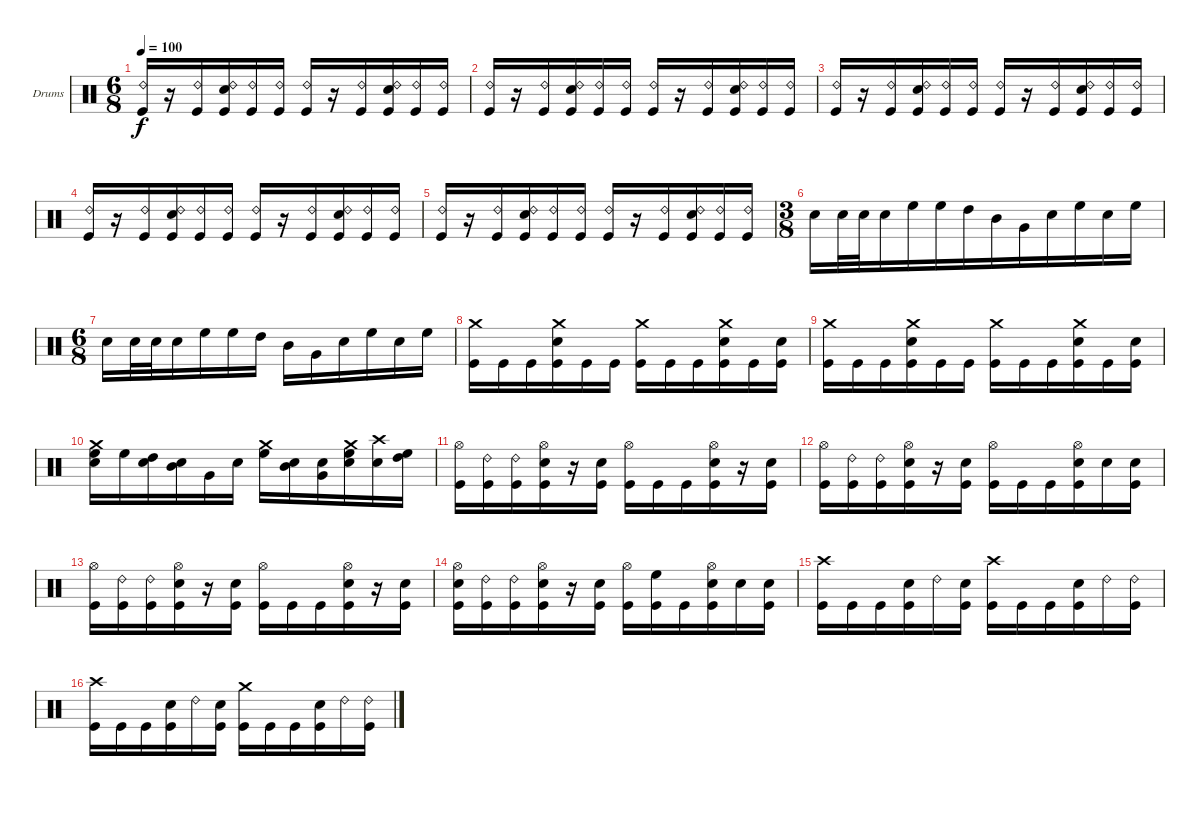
\defaultSystemsLayout 4
\bracketExtendMode groupsimilarinstruments
\firstSystemTrackNameOrientation horizontal
\otherSystemsTrackNameOrientation horizontal
\track ("Drumkit" "Drums") {instrument percussion}
\staff {score}
\articulation defaults
\ts (6 8)
\tempo 100
\clef neutral
\scale
0.333333
\ks c
("Kick (hit)" "Ride (bell) 2").16{lyrics (0 "") lyrics (1 "") lyrics (2 "") lyrics (3 "") lyrics (4 "") dy f} r.16 ("Kick (hit)" "Ride (bell) 2").16{lyrics (0 "") lyrics (1 "") lyrics (2 "") lyrics (3 "") lyrics (4 "")} ("Kick (hit)" "Snare (hit) 2" "Ride (bell) 2").16 ("Kick (hit)" "Ride (bell) 2").16 ("Kick (hit)" "Ride (bell) 2").16 ("Kick (hit)" "Ride (bell) 2").16 r.16 ("Kick (hit)" "Ride (bell) 2").16 ("Kick (hit)" "Snare (hit) 2" "Ride (bell) 2").16 ("Kick (hit)" "Ride (bell) 2").16 ("Kick (hit)" "Ride (bell) 2").16 |
\scale
0.333333 ("Kick (hit)" "Ride (bell) 2").16{lyrics (0 "") lyrics (1 "") lyrics (2 "") lyrics (3 "") lyrics (4 "")} r.16 ("Kick (hit)" "Ride (bell) 2").16{lyrics (0 "") lyrics (1 "") lyrics (2 "") lyrics (3 "") lyrics (4 "")} ("Kick (hit)" "Snare (hit) 2" "Ride (bell) 2").16 ("Kick (hit)" "Ride (bell) 2").16 ("Kick (hit)" "Ride (bell) 2").16 ("Kick (hit)" "Ride (bell) 2").16 r.16 ("Kick (hit)" "Ride (bell) 2").16 ("Kick (hit)" "Snare (hit) 2" "Ride (bell) 2").16 ("Kick (hit)" "Ride (bell) 2").16 ("Kick (hit)" "Ride (bell) 2").16 |
\scale
0.333333 ("Kick (hit)" "Ride (bell) 2").16{lyrics (0 "") lyrics (1 "") lyrics (2 "") lyrics (3 "") lyrics (4 "")} r.16 ("Kick (hit)" "Ride (bell) 2").16{lyrics (0 "") lyrics (1 "") lyrics (2 "") lyrics (3 "") lyrics (4 "")} ("Kick (hit)" "Snare (hit) 2" "Ride (bell) 2").16 ("Kick (hit)" "Ride (bell) 2").16 ("Kick (hit)" "Ride (bell) 2").16 ("Kick (hit)" "Ride (bell) 2").16 r.16 ("Kick (hit)" "Ride (bell) 2").16 ("Kick (hit)" "Snare (hit) 2" "Ride (bell) 2").16 ("Kick (hit)" "Ride (bell) 2").16 ("Kick (hit)" "Ride (bell) 2").16 |
\scale
0.333333 ("Kick (hit)" "Ride (bell) 2").16{lyrics (0 "") lyrics (1 "") lyrics (2 "") lyrics (3 "") lyrics (4 "")} r.16 ("Kick (hit)" "Ride (bell) 2").16{lyrics (0 "") lyrics (1 "") lyrics (2 "") lyrics (3 "") lyrics (4 "")} ("Kick (hit)" "Snare (hit) 2" "Ride (bell) 2").16 ("Kick (hit)" "Ride (bell) 2").16 ("Kick (hit)" "Ride (bell) 2").16 ("Kick (hit)" "Ride (bell) 2").16 r.16 ("Kick (hit)" "Ride (bell) 2").16 ("Kick (hit)" "Snare (hit) 2" "Ride (bell) 2").16 ("Kick (hit)" "Ride (bell) 2").16 ("Kick (hit)" "Ride (bell) 2").16 |
\scale
0.333333 ("Kick (hit)" "Ride (bell) 2").16{lyrics (0 "") lyrics (1 "") lyrics (2 "") lyrics (3 "") lyrics (4 "")} r.16 ("Kick (hit)" "Ride (bell) 2").16{lyrics (0 "") lyrics (1 "") lyrics (2 "") lyrics (3 "") lyrics (4 "")} ("Kick (hit)" "Snare (hit) 2" "Ride (bell) 2").16 ("Kick (hit)" "Ride (bell) 2").16 ("Kick (hit)" "Ride (bell) 2").16 ("Kick (hit)" "Ride (bell) 2").16 r.16 ("Kick (hit)" "Ride (bell) 2").16 ("Kick (hit)" "Snare (hit) 2" "Ride (bell) 2").16 ("Kick (hit)" "Ride (bell) 2").16 ("Kick (hit)" "Ride (bell) 2").16 |
\ts (3 8)
\scale
0.333333 "Snare (hit) 2".16{lyrics (0 "") lyrics (1 "") lyrics (2 "") lyrics (3 "") lyrics (4 "")} "Snare (hit) 2".32{lyrics (0 "") lyrics (1 "") lyrics (2 "") lyrics (3 "") lyrics (4 "")} "Snare (hit) 2".32 "Snare (hit) 2".16 "High Floor Tom (hit)".16 "High Floor Tom (hit)".16 "High Tom (hit)".16 "Mid Tom (hit)".16 "Very Low Tom (hit)".16 "Snare (hit) 2".16 "High Floor Tom (hit)".16 "Snare (hit) 2".16 "High Floor Tom (hit)".16 |
\ts (6 8)
\scale
0.333333 "Snare (hit) 2".16{lyrics (0 "") lyrics (1 "") lyrics (2 "") lyrics (3 "") lyrics (4 "")} "Snare (hit) 2".32{lyrics (0 "") lyrics (1 "") lyrics (2 "") lyrics (3 "") lyrics (4 "")} "Snare (hit) 2".32 "Snare (hit) 2".16 "High Floor Tom (hit)".16 "High Floor Tom (hit)".16 "High Tom (hit)".16 "Mid Tom (hit)".16 "Very Low Tom (hit)".16 "Snare (hit) 2".16 "High Floor Tom (hit)".16 "Snare (hit) 2".16 "High Floor Tom (hit)".16 |
\scale
0.333333 ("Kick (hit)" "Crash medium (hit)").16{lyrics (0 "") lyrics (1 "") lyrics (2 "") lyrics (3 "") lyrics (4 "")} "Kick (hit)".16{lyrics (0 "") lyrics (1 "") lyrics (2 "") lyrics (3 "") lyrics (4 "")} "Kick (hit)".16 ("Kick (hit)" "Snare (hit) 2" "Crash medium (hit)").16 "Kick (hit)".16 "Kick (hit)".16 ("Kick (hit)" "Crash medium (hit)").16 "Kick (hit)".16 "Kick (hit)".16 ("Kick (hit)" "Snare (hit) 2" "Crash medium (hit)").16 "Kick (hit)".16 ("Kick (hit)" "Snare (hit) 2").16 |
\scale
0.333333 ("Kick (hit)" "Crash medium (hit)").16{lyrics (0 "") lyrics (1 "") lyrics (2 "") lyrics (3 "") lyrics (4 "")} "Kick (hit)".16{lyrics (0 "") lyrics (1 "") lyrics (2 "") lyrics (3 "") lyrics (4 "")} "Kick (hit)".16 ("Kick (hit)" "Snare (hit) 2" "Crash medium (hit)").16 "Kick (hit)".16 "Kick (hit)".16 ("Kick (hit)" "Crash medium (hit)").16 "Kick (hit)".16 "Kick (hit)".16 ("Kick (hit)" "Snare (hit) 2" "Crash medium (hit)").16 "Kick (hit)".16 ("Kick (hit)" "Snare (hit) 2").16 |
\scale
0.333333 ("High Floor Tom (hit)" "Snare (hit) 2" "Crash medium (hit)").16{lyrics (0 "") lyrics (1 "") lyrics (2 "") lyrics (3 "") lyrics (4 "")} "High Floor Tom (hit)".16{lyrics (0 "") lyrics (1 "") lyrics (2 "") lyrics (3 "") lyrics (4 "")} ("High Tom (hit)" "Snare (hit) 2").16 ("Mid Tom (hit)" "Snare (hit) 2").16 "Very Low Tom (hit)".16 "Snare (hit) 2".16 ("High Floor Tom (hit)" "Crash medium (hit)").16 ("Mid Tom (hit)" "Snare (hit) 2").16 ("Very Low Tom (hit)" "Snare (hit) 2").16 ("Snare (hit) 2" "High Floor Tom (hit)" "Crash medium (hit)").16 ("Snare (hit) 2" "Crash high (hit)").16 ("High Floor Tom (hit)" "High Tom (hit)").16 |
\scale
0.333333 ("Hi-Hat (open)" "Kick (hit)").16{lyrics (0 "") lyrics (1 "") lyrics (2 "") lyrics (3 "") lyrics (4 "")} ("Ride (bell) 2" "Kick (hit)").16{lyrics (0 "") lyrics (1 "") lyrics (2 "") lyrics (3 "") lyrics (4 "")} ("Ride (bell) 2" "Kick (hit)").16 ("Hi-Hat (open)" "Snare (hit) 2" "Kick (hit)").16 r.16 ("Snare (hit) 2" "Kick (hit)").16 ("Hi-Hat (open)" "Kick (hit)").16 "Kick (hit)".16 "Kick (hit)".16 ("Hi-Hat (open)" "Snare (hit) 2" "Kick (hit)").16 r.16 ("Snare (hit) 2" "Kick (hit)").16 |
\scale
0.333333 ("Hi-Hat (open)" "Kick (hit)").16{lyrics (0 "") lyrics (1 "") lyrics (2 "") lyrics (3 "") lyrics (4 "")} ("Ride (bell) 2" "Kick (hit)").16{lyrics (0 "") lyrics (1 "") lyrics (2 "") lyrics (3 "") lyrics (4 "")} ("Ride (bell) 2" "Kick (hit)").16 ("Hi-Hat (open)" "Snare (hit) 2" "Kick (hit)").16 r.16 ("Snare (hit) 2" "Kick (hit)").16 ("Hi-Hat (open)" "Kick (hit)").16 "Kick (hit)".16 "Kick (hit)".16 ("Hi-Hat (open)" "Snare (hit) 2" "Kick (hit)").16 "Snare (hit) 2".16 ("Snare (hit) 2" "Kick (hit)").16 |
\scale
0.333333 ("Hi-Hat (open)" "Kick (hit)").16{lyrics (0 "") lyrics (1 "") lyrics (2 "") lyrics (3 "") lyrics (4 "")} ("Ride (bell) 2" "Kick (hit)").16{lyrics (0 "") lyrics (1 "") lyrics (2 "") lyrics (3 "") lyrics (4 "")} ("Ride (bell) 2" "Kick (hit)").16 ("Hi-Hat (open)" "Snare (hit) 2" "Kick (hit)").16 r.16 ("Snare (hit) 2" "Kick (hit)").16 ("Hi-Hat (open)" "Kick (hit)").16 "Kick (hit)".16 "Kick (hit)".16 ("Hi-Hat (open)" "Snare (hit) 2" "Kick (hit)").16 r.16 ("Snare (hit) 2" "Kick (hit)").16 |
\scale
0.333333 ("Hi-Hat (open)" "Snare (hit) 2" "Kick (hit)").16{lyrics (0 "") lyrics (1 "") lyrics (2 "") lyrics (3 "") lyrics (4 "")} ("Ride (bell) 2" "Kick (hit)").16{lyrics (0 "") lyrics (1 "") lyrics (2 "") lyrics (3 "") lyrics (4 "")} ("Ride (bell) 2" "Kick (hit)").16 ("Hi-Hat (open)" "Snare (hit) 2" "Kick (hit)").16 r.16 ("Snare (hit) 2" "Kick (hit)").16 ("Hi-Hat (open)" "Kick (hit)").16 ("High Floor Tom (hit)" "Kick (hit)").16 "Kick (hit)".16 ("Hi-Hat (open)" "Snare (hit) 2" "Kick (hit)").16 "Snare (hit) 2".16 ("Snare (hit) 2" "Kick (hit)").16 |
\scale
0.333333 ("Crash high (hit)" "Kick (hit)").16{lyrics (0 "") lyrics (1 "") lyrics (2 "") lyrics (3 "") lyrics (4 "")} "Kick (hit)".16{lyrics (0 "") lyrics (1 "") lyrics (2 "") lyrics (3 "") lyrics (4 "")} "Kick (hit)".16 ("Snare (hit) 2" "Kick (hit)").16 "Ride (bell) 2".16 ("Snare (hit) 2" "Kick (hit)").16 ("Crash high (hit)" "Kick (hit)").16 "Kick (hit)".16 "Kick (hit)".16 ("Snare (hit) 2" "Kick (hit)").16 "Ride (bell) 2".16 ("Ride (bell) 2" "Kick (hit)").16 |
\scale
0.333333 ("Crash high (hit)" "Kick (hit)").16{lyrics (0 "") lyrics (1 "") lyrics (2 "") lyrics (3 "") lyrics (4 "")} "Kick (hit)".16{lyrics (0 "") lyrics (1 "") lyrics (2 "") lyrics (3 "") lyrics (4 "")} "Kick (hit)".16 ("Snare (hit) 2" "Kick (hit)").16 "Ride (bell) 2".16 ("Snare (hit) 2" "Kick (hit)").16 ("Crash medium (hit)" "Kick (hit)").16 "Kick (hit)".16 "Kick (hit)".16 ("Snare (hit) 2" "Kick (hit)").16 "Ride (bell) 2".16 ("Ride (bell) 2" "Kick (hit)").16
